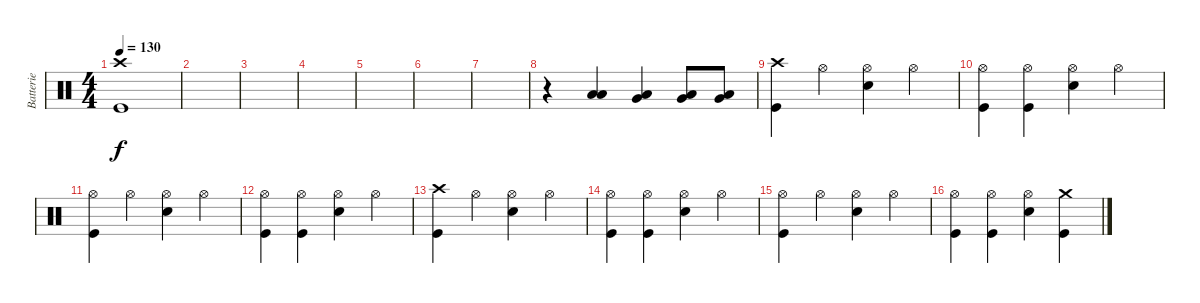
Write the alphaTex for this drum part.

\track ("Batterie" "Batterie") {instrument percussion}
\staff {score}
\articulation defaults
\ts (4 4)
\tempo 130
\clef neutral
\ks c
("Crash high (hit)" "Kick (hit)").1{dy f} |
|
|
|
|
|
|
r.4 ("Low Tom (hit)" "Low Floor Tom (hit)").4 ("Very Low Tom (hit)" "Low Floor Tom (hit)").4 ("Very Low Tom (hit)" "Low Floor Tom (hit)").8 ("Very Low Tom (hit)" "Low Floor Tom (hit)").8 |
("Crash high (hit)" "Kick (hit)").4 "Hi-Hat (open)".4 ("Hi-Hat (open)" "Electric Snare (hit)").4 "Hi-Hat (open)".4 |
("Hi-Hat (open)" "Kick (hit)").4 ("Hi-Hat (open)" "Kick (hit)").4 ("Hi-Hat (open)" "Electric Snare (hit)").4 "Hi-Hat (open)".4 |
("Hi-Hat (open)" "Kick (hit)").4 "Hi-Hat (open)".4 ("Hi-Hat (open)" "Electric Snare (hit)").4 "Hi-Hat (open)".4 |
("Hi-Hat (open)" "Kick (hit)").4 ("Hi-Hat (open)" "Kick (hit)").4 ("Hi-Hat (open)" "Electric Snare (hit)").4 "Hi-Hat (open)".4 |
("Crash high (hit)" "Kick (hit)").4 "Hi-Hat (open)".4 ("Hi-Hat (open)" "Electric Snare (hit)").4 "Hi-Hat (open)".4 |
("Hi-Hat (open)" "Kick (hit)").4 ("Hi-Hat (open)" "Kick (hit)").4 ("Hi-Hat (open)" "Electric Snare (hit)").4 "Hi-Hat (open)".4 |
("Hi-Hat (open)" "Kick (hit)").4 "Hi-Hat (open)".4 ("Hi-Hat (open)" "Electric Snare (hit)").4 "Hi-Hat (open)".4 |
("Hi-Hat (open)" "Kick (hit)").4 ("Hi-Hat (open)" "Kick (hit)").4 ("Hi-Hat (open)" "Electric Snare (hit)").4 ("Crash medium (hit)" "Kick (hit)").4
